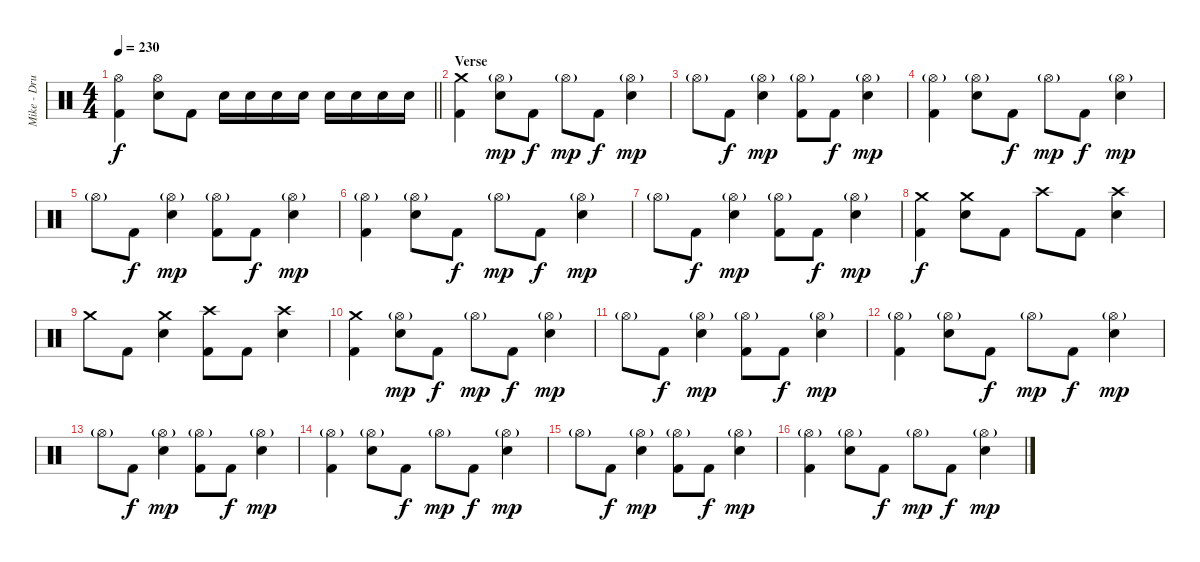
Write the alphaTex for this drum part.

\track ("Mike - Drums" "Mike - Dru") {instrument percussion}
\staff {score}
\articulation defaults
\ts (4 4)
\tempo 230
\clef neutral
\barLineRight lightlight
\ks c
("Hi-Hat (open)" "Kick (hit) 2").4{dy f} ("Hi-Hat (open)" "Electric Snare (hit)").8 "Kick (hit) 2".8 "Electric Snare (hit)".16 "Electric Snare (hit)".16 "Electric Snare (hit)".16 "Electric Snare (hit)".16 "Electric Snare (hit)".16 "Electric Snare (hit)".16 "Electric Snare (hit)".16 "Electric Snare (hit)".16 |
\section ("" "Verse")
("Crash medium (hit)" "Kick (hit) 2").4 ("Hi-Hat (open)"{g} "Electric Snare (hit)").8{dy mp} "Kick (hit) 2".8{dy f} "Hi-Hat (open)"{g}.8{dy mp} "Kick (hit) 2".8{dy f} ("Hi-Hat (open)"{g} "Electric Snare (hit)").4{dy mp} |
"Hi-Hat (open)"{g}.8 "Kick (hit) 2".8{dy f} ("Hi-Hat (open)"{g} "Electric Snare (hit)").4{dy mp} ("Hi-Hat (open)"{g} "Kick (hit) 2").8 "Kick (hit) 2".8{dy f} ("Hi-Hat (open)"{g} "Electric Snare (hit)").4{dy mp} |
("Hi-Hat (open)"{g} "Kick (hit) 2").4 ("Hi-Hat (open)"{g} "Electric Snare (hit)").8 "Kick (hit) 2".8{dy f} "Hi-Hat (open)"{g}.8{dy mp} "Kick (hit) 2".8{dy f} ("Hi-Hat (open)"{g} "Electric Snare (hit)").4{dy mp} |
"Hi-Hat (open)"{g}.8 "Kick (hit) 2".8{dy f} ("Hi-Hat (open)"{g} "Electric Snare (hit)").4{dy mp} ("Hi-Hat (open)"{g} "Kick (hit) 2").8 "Kick (hit) 2".8{dy f} ("Hi-Hat (open)"{g} "Electric Snare (hit)").4{dy mp} |
("Hi-Hat (open)"{g} "Kick (hit) 2").4 ("Hi-Hat (open)"{g} "Electric Snare (hit)").8 "Kick (hit) 2".8{dy f} "Hi-Hat (open)"{g}.8{dy mp} "Kick (hit) 2".8{dy f} ("Hi-Hat (open)"{g} "Electric Snare (hit)").4{dy mp} |
"Hi-Hat (open)"{g}.8 "Kick (hit) 2".8{dy f} ("Hi-Hat (open)"{g} "Electric Snare (hit)").4{dy mp} ("Hi-Hat (open)"{g} "Kick (hit) 2").8 "Kick (hit) 2".8{dy f} ("Hi-Hat (open)"{g} "Electric Snare (hit)").4{dy mp} |
("Crash medium (hit)" "Kick (hit) 2").4{dy f} ("Crash medium (hit)" "Electric Snare (hit)").8 "Kick (hit) 2".8 "Crash high (hit)".8 "Kick (hit) 2".8 ("Crash high (hit)" "Electric Snare (hit)").4 |
"Crash medium (hit)".8 "Kick (hit) 2".8 ("Crash medium (hit)" "Electric Snare (hit)").4 ("Crash high (hit)" "Kick (hit) 2").8 "Kick (hit) 2".8 ("Crash high (hit)" "Electric Snare (hit)").4 |
("Crash medium (hit)" "Kick (hit) 2").4 ("Hi-Hat (open)"{g} "Electric Snare (hit)").8{dy mp} "Kick (hit) 2".8{dy f} "Hi-Hat (open)"{g}.8{dy mp} "Kick (hit) 2".8{dy f} ("Hi-Hat (open)"{g} "Electric Snare (hit)").4{dy mp} |
"Hi-Hat (open)"{g}.8 "Kick (hit) 2".8{dy f} ("Hi-Hat (open)"{g} "Electric Snare (hit)").4{dy mp} ("Hi-Hat (open)"{g} "Kick (hit) 2").8 "Kick (hit) 2".8{dy f} ("Hi-Hat (open)"{g} "Electric Snare (hit)").4{dy mp} |
("Hi-Hat (open)"{g} "Kick (hit) 2").4 ("Hi-Hat (open)"{g} "Electric Snare (hit)").8 "Kick (hit) 2".8{dy f} "Hi-Hat (open)"{g}.8{dy mp} "Kick (hit) 2".8{dy f} ("Hi-Hat (open)"{g} "Electric Snare (hit)").4{dy mp} |
"Hi-Hat (open)"{g}.8 "Kick (hit) 2".8{dy f} ("Hi-Hat (open)"{g} "Electric Snare (hit)").4{dy mp} ("Hi-Hat (open)"{g} "Kick (hit) 2").8 "Kick (hit) 2".8{dy f} ("Hi-Hat (open)"{g} "Electric Snare (hit)").4{dy mp} |
("Hi-Hat (open)"{g} "Kick (hit) 2").4 ("Hi-Hat (open)"{g} "Electric Snare (hit)").8 "Kick (hit) 2".8{dy f} "Hi-Hat (open)"{g}.8{dy mp} "Kick (hit) 2".8{dy f} ("Hi-Hat (open)"{g} "Electric Snare (hit)").4{dy mp} |
"Hi-Hat (open)"{g}.8 "Kick (hit) 2".8{dy f} ("Hi-Hat (open)"{g} "Electric Snare (hit)").4{dy mp} ("Hi-Hat (open)"{g} "Kick (hit) 2").8 "Kick (hit) 2".8{dy f} ("Hi-Hat (open)"{g} "Electric Snare (hit)").4{dy mp} |
("Hi-Hat (open)"{g} "Kick (hit) 2").4 ("Hi-Hat (open)"{g} "Electric Snare (hit)").8 "Kick (hit) 2".8{dy f} "Hi-Hat (open)"{g}.8{dy mp} "Kick (hit) 2".8{dy f} ("Hi-Hat (open)"{g} "Electric Snare (hit)").4{dy mp}
